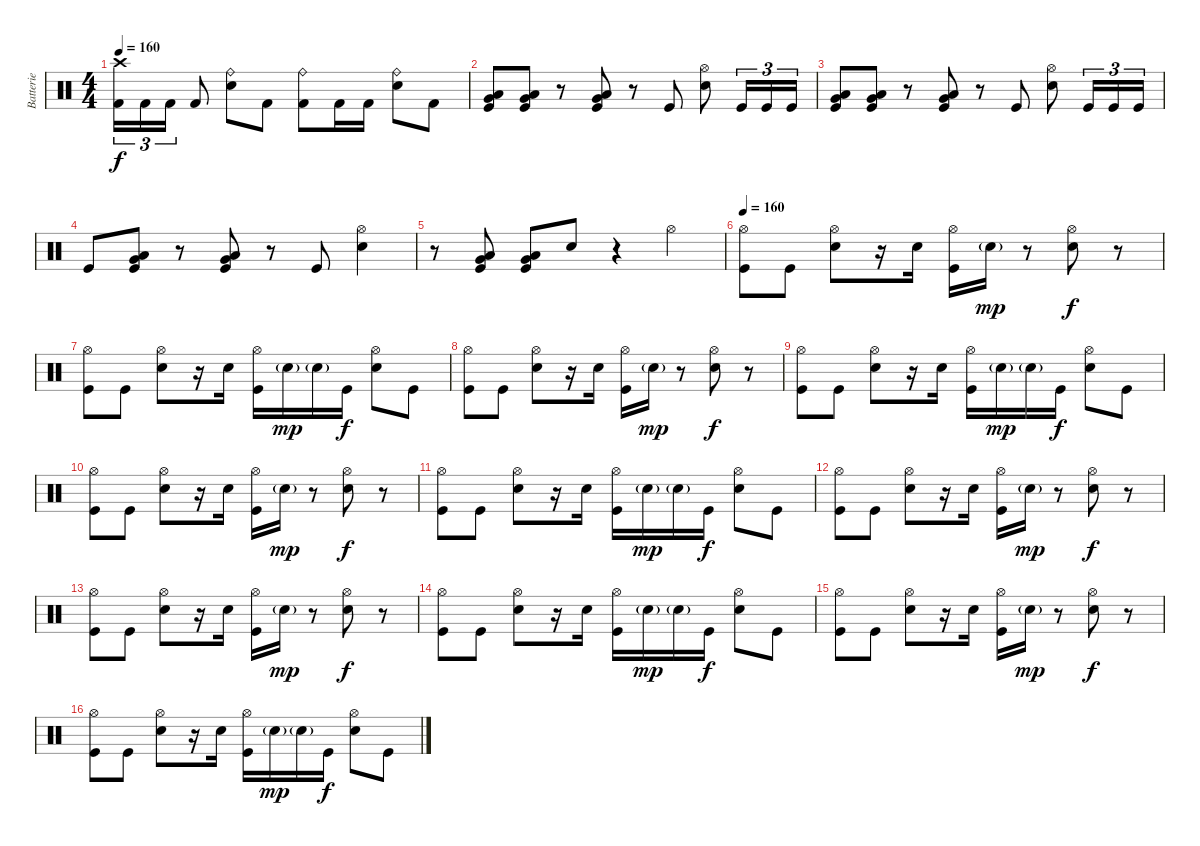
\track ("Batterie" "Batterie") {instrument percussion}
\staff {score}
\articulation defaults
\ts (4 4)
\tempo 160
\clef neutral
\ks c
("Crash high (hit)" "Kick (hit) 2").16{tu (3 2) dy f} "Kick (hit) 2".16{tu (3 2)} "Kick (hit) 2".16{tu (3 2)} "Kick (hit) 2".8 ("Ride (bell)" "Electric Snare (hit)").8 "Kick (hit) 2".8 ("Ride (bell)" "Kick (hit) 2").8 "Kick (hit) 2".16 "Kick (hit) 2".16 ("Ride (bell)" "Electric Snare (hit)").8 "Kick (hit) 2".8 |
("Very Low Tom (hit)" "Low Tom (hit)" "Kick (hit)").8 ("Very Low Tom (hit)" "Low Tom (hit)" "Kick (hit)").8 r.8 ("Very Low Tom (hit)" "Low Tom (hit)" "Kick (hit)").8 r.8 "Kick (hit)".8 ("Hi-Hat (open)" "Electric Snare (hit)").8 "Kick (hit)".16{tu (3 2)} "Kick (hit)".16{tu (3 2)} "Kick (hit)".16{tu (3 2)} |
("Very Low Tom (hit)" "Low Tom (hit)" "Kick (hit)").8 ("Very Low Tom (hit)" "Low Tom (hit)" "Kick (hit)").8 r.8 ("Very Low Tom (hit)" "Low Tom (hit)" "Kick (hit)").8 r.8 "Kick (hit)".8 ("Hi-Hat (open)" "Electric Snare (hit)").8 "Kick (hit)".16{tu (3 2)} "Kick (hit)".16{tu (3 2)} "Kick (hit)".16{tu (3 2)} |
"Kick (hit)".8 ("Very Low Tom (hit)" "Low Tom (hit)" "Kick (hit)").8 r.8 ("Very Low Tom (hit)" "Low Tom (hit)" "Kick (hit)").8 r.8 "Kick (hit)".8 ("Hi-Hat (open)" "Electric Snare (hit)").4 |
r.8 ("Very Low Tom (hit)" "Low Tom (hit)" "Kick (hit)").8 ("Very Low Tom (hit)" "Low Tom (hit)" "Kick (hit)").8 "Electric Snare (hit)".8 r.4 "Hi-Hat (open)".4 |
\tempo 160
("Hi-Hat (open)" "Kick (hit)").8 "Kick (hit)".8 ("Hi-Hat (open)" "Electric Snare (hit)").8 r.16 "Electric Snare (hit)".16 ("Hi-Hat (open)" "Kick (hit)").16 "Electric Snare (hit)"{g}.16{dy mp} r.8 ("Hi-Hat (open)" "Electric Snare (hit)").8{dy f} r.8 |
("Hi-Hat (open)" "Kick (hit)").8 "Kick (hit)".8 ("Hi-Hat (open)" "Electric Snare (hit)").8 r.16 "Electric Snare (hit)".16 ("Hi-Hat (open)" "Kick (hit)").16 "Electric Snare (hit)"{g}.16{dy mp} "Electric Snare (hit)"{g}.16 "Kick (hit)".16{dy f} ("Hi-Hat (open)" "Electric Snare (hit)").8 "Kick (hit)".8 |
("Hi-Hat (open)" "Kick (hit)").8 "Kick (hit)".8 ("Hi-Hat (open)" "Electric Snare (hit)").8 r.16 "Electric Snare (hit)".16 ("Hi-Hat (open)" "Kick (hit)").16 "Electric Snare (hit)"{g}.16{dy mp} r.8 ("Hi-Hat (open)" "Electric Snare (hit)").8{dy f} r.8 |
("Hi-Hat (open)" "Kick (hit)").8 "Kick (hit)".8 ("Hi-Hat (open)" "Electric Snare (hit)").8 r.16 "Electric Snare (hit)".16 ("Hi-Hat (open)" "Kick (hit)").16 "Electric Snare (hit)"{g}.16{dy mp} "Electric Snare (hit)"{g}.16 "Kick (hit)".16{dy f} ("Hi-Hat (open)" "Electric Snare (hit)").8 "Kick (hit)".8 |
("Hi-Hat (open)" "Kick (hit)").8 "Kick (hit)".8 ("Hi-Hat (open)" "Electric Snare (hit)").8 r.16 "Electric Snare (hit)".16 ("Hi-Hat (open)" "Kick (hit)").16 "Electric Snare (hit)"{g}.16{dy mp} r.8 ("Hi-Hat (open)" "Electric Snare (hit)").8{dy f} r.8 |
("Hi-Hat (open)" "Kick (hit)").8 "Kick (hit)".8 ("Hi-Hat (open)" "Electric Snare (hit)").8 r.16 "Electric Snare (hit)".16 ("Hi-Hat (open)" "Kick (hit)").16 "Electric Snare (hit)"{g}.16{dy mp} "Electric Snare (hit)"{g}.16 "Kick (hit)".16{dy f} ("Hi-Hat (open)" "Electric Snare (hit)").8 "Kick (hit)".8 |
("Hi-Hat (open)" "Kick (hit)").8 "Kick (hit)".8 ("Hi-Hat (open)" "Electric Snare (hit)").8 r.16 "Electric Snare (hit)".16 ("Hi-Hat (open)" "Kick (hit)").16 "Electric Snare (hit)"{g}.16{dy mp} r.8 ("Hi-Hat (open)" "Electric Snare (hit)").8{dy f} r.8 |
("Hi-Hat (open)" "Kick (hit)").8 "Kick (hit)".8 ("Hi-Hat (open)" "Electric Snare (hit)").8 r.16 "Electric Snare (hit)".16 ("Hi-Hat (open)" "Kick (hit)").16 "Electric Snare (hit)"{g}.16{dy mp} r.8 ("Hi-Hat (open)" "Electric Snare (hit)").8{dy f} r.8 |
("Hi-Hat (open)" "Kick (hit)").8 "Kick (hit)".8 ("Hi-Hat (open)" "Electric Snare (hit)").8 r.16 "Electric Snare (hit)".16 ("Hi-Hat (open)" "Kick (hit)").16 "Electric Snare (hit)"{g}.16{dy mp} "Electric Snare (hit)"{g}.16 "Kick (hit)".16{dy f} ("Hi-Hat (open)" "Electric Snare (hit)").8 "Kick (hit)".8 |
("Hi-Hat (open)" "Kick (hit)").8 "Kick (hit)".8 ("Hi-Hat (open)" "Electric Snare (hit)").8 r.16 "Electric Snare (hit)".16 ("Hi-Hat (open)" "Kick (hit)").16 "Electric Snare (hit)"{g}.16{dy mp} r.8 ("Hi-Hat (open)" "Electric Snare (hit)").8{dy f} r.8 |
("Hi-Hat (open)" "Kick (hit)").8 "Kick (hit)".8 ("Hi-Hat (open)" "Electric Snare (hit)").8 r.16 "Electric Snare (hit)".16 ("Hi-Hat (open)" "Kick (hit)").16 "Electric Snare (hit)"{g}.16{dy mp} "Electric Snare (hit)"{g}.16 "Kick (hit)".16{dy f} ("Hi-Hat (open)" "Electric Snare (hit)").8 "Kick (hit)".8
